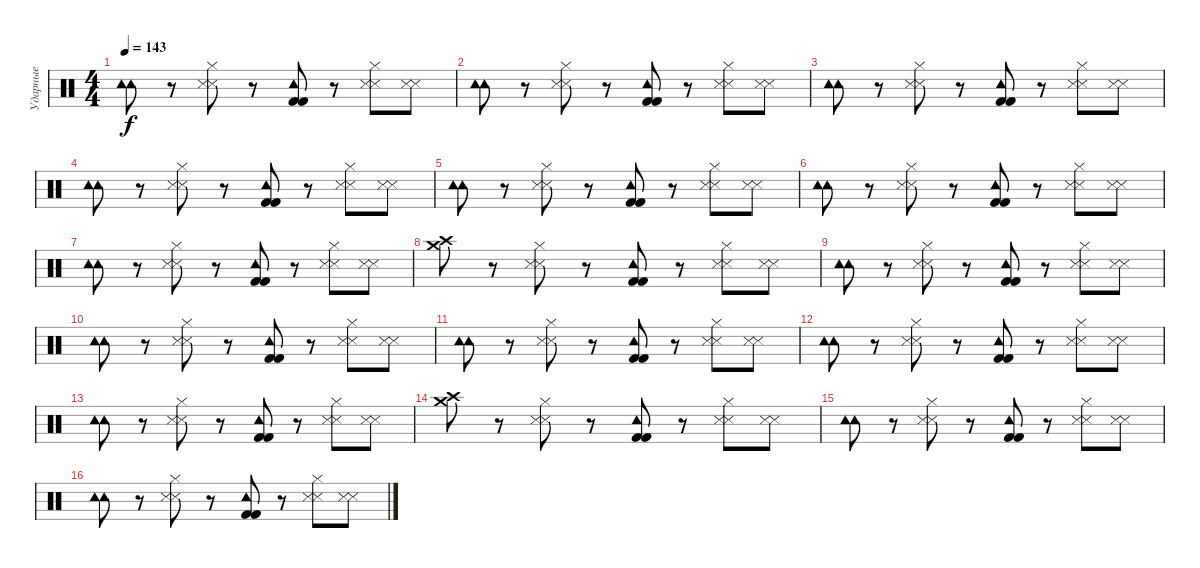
\track ("Ударные" "Ударные") {instrument percussion}
\staff {score}
\articulation defaults
\ts (4 4)
\tempo 143
\clef neutral
\ks c
("Tambourine (hit)" "Tambourine (hit)").8{dy f} r.8 ("Hi-Hat (closed)" "Metronome (hit)" "Metronome (hit)").8 r.8 ("Tambourine (hit)" "Kick (hit) 2" "Kick (hit) 2").8 r.8 ("Hi-Hat (closed)" "Metronome (hit)" "Metronome (hit)").8 ("Metronome (hit)" "Metronome (hit)").8 |
("Tambourine (hit)" "Tambourine (hit)").8 r.8 ("Hi-Hat (closed)" "Metronome (hit)" "Metronome (hit)").8 r.8 ("Tambourine (hit)" "Kick (hit) 2" "Kick (hit) 2").8 r.8 ("Hi-Hat (closed)" "Metronome (hit)" "Metronome (hit)").8 ("Metronome (hit)" "Metronome (hit)").8 |
("Tambourine (hit)" "Tambourine (hit)").8 r.8 ("Hi-Hat (closed)" "Metronome (hit)" "Metronome (hit)").8 r.8 ("Tambourine (hit)" "Kick (hit) 2" "Kick (hit) 2").8 r.8 ("Hi-Hat (closed)" "Metronome (hit)" "Metronome (hit)").8 ("Metronome (hit)" "Metronome (hit)").8 |
("Tambourine (hit)" "Tambourine (hit)").8 r.8 ("Hi-Hat (closed)" "Metronome (hit)" "Metronome (hit)").8 r.8 ("Tambourine (hit)" "Kick (hit) 2" "Kick (hit) 2").8 r.8 ("Hi-Hat (closed)" "Metronome (hit)" "Metronome (hit)").8 ("Metronome (hit)" "Metronome (hit)").8 |
("Tambourine (hit)" "Tambourine (hit)").8 r.8 ("Hi-Hat (closed)" "Metronome (hit)" "Metronome (hit)").8 r.8 ("Tambourine (hit)" "Kick (hit) 2" "Kick (hit) 2").8 r.8 ("Hi-Hat (closed)" "Metronome (hit)" "Metronome (hit)").8 ("Metronome (hit)" "Metronome (hit)").8 |
("Tambourine (hit)" "Tambourine (hit)").8 r.8 ("Hi-Hat (closed)" "Metronome (hit)" "Metronome (hit)").8 r.8 ("Tambourine (hit)" "Kick (hit) 2" "Kick (hit) 2").8 r.8 ("Hi-Hat (closed)" "Metronome (hit)" "Metronome (hit)").8 ("Metronome (hit)" "Metronome (hit)").8 |
("Tambourine (hit)" "Tambourine (hit)").8 r.8 ("Hi-Hat (closed)" "Metronome (hit)" "Metronome (hit)").8 r.8 ("Tambourine (hit)" "Kick (hit) 2" "Kick (hit) 2").8 r.8 ("Hi-Hat (closed)" "Metronome (hit)" "Metronome (hit)").8 ("Metronome (hit)" "Metronome (hit)").8 |
("Crash medium (hit)" "Crash high (hit)").8 r.8 ("Hi-Hat (closed)" "Metronome (hit)" "Metronome (hit)").8 r.8 ("Tambourine (hit)" "Kick (hit) 2" "Kick (hit) 2").8 r.8 ("Hi-Hat (closed)" "Metronome (hit)" "Metronome (hit)").8 ("Metronome (hit)" "Metronome (hit)").8 |
("Tambourine (hit)" "Tambourine (hit)").8 r.8 ("Hi-Hat (closed)" "Metronome (hit)" "Metronome (hit)").8 r.8 ("Tambourine (hit)" "Kick (hit) 2" "Kick (hit) 2").8 r.8 ("Hi-Hat (closed)" "Metronome (hit)" "Metronome (hit)").8 ("Metronome (hit)" "Metronome (hit)").8 |
("Tambourine (hit)" "Tambourine (hit)").8 r.8 ("Hi-Hat (closed)" "Metronome (hit)" "Metronome (hit)").8 r.8 ("Tambourine (hit)" "Kick (hit) 2" "Kick (hit) 2").8 r.8 ("Hi-Hat (closed)" "Metronome (hit)" "Metronome (hit)").8 ("Metronome (hit)" "Metronome (hit)").8 |
("Tambourine (hit)" "Tambourine (hit)").8 r.8 ("Hi-Hat (closed)" "Metronome (hit)" "Metronome (hit)").8 r.8 ("Tambourine (hit)" "Kick (hit) 2" "Kick (hit) 2").8 r.8 ("Hi-Hat (closed)" "Metronome (hit)" "Metronome (hit)").8 ("Metronome (hit)" "Metronome (hit)").8 |
("Tambourine (hit)" "Tambourine (hit)").8 r.8 ("Hi-Hat (closed)" "Metronome (hit)" "Metronome (hit)").8 r.8 ("Tambourine (hit)" "Kick (hit) 2" "Kick (hit) 2").8 r.8 ("Hi-Hat (closed)" "Metronome (hit)" "Metronome (hit)").8 ("Metronome (hit)" "Metronome (hit)").8 |
("Tambourine (hit)" "Tambourine (hit)").8 r.8 ("Hi-Hat (closed)" "Metronome (hit)" "Metronome (hit)").8 r.8 ("Tambourine (hit)" "Kick (hit) 2" "Kick (hit) 2").8 r.8 ("Hi-Hat (closed)" "Metronome (hit)" "Metronome (hit)").8 ("Metronome (hit)" "Metronome (hit)").8 |
("Crash medium (hit)" "Crash high (hit)").8 r.8 ("Hi-Hat (closed)" "Metronome (hit)" "Metronome (hit)").8 r.8 ("Tambourine (hit)" "Kick (hit) 2" "Kick (hit) 2").8 r.8 ("Hi-Hat (closed)" "Metronome (hit)" "Metronome (hit)").8 ("Metronome (hit)" "Metronome (hit)").8 |
("Tambourine (hit)" "Tambourine (hit)").8 r.8 ("Hi-Hat (closed)" "Metronome (hit)" "Metronome (hit)").8 r.8 ("Tambourine (hit)" "Kick (hit) 2" "Kick (hit) 2").8 r.8 ("Hi-Hat (closed)" "Metronome (hit)" "Metronome (hit)").8 ("Metronome (hit)" "Metronome (hit)").8 |
("Tambourine (hit)" "Tambourine (hit)").8 r.8 ("Hi-Hat (closed)" "Metronome (hit)" "Metronome (hit)").8 r.8 ("Tambourine (hit)" "Kick (hit) 2" "Kick (hit) 2").8 r.8 ("Hi-Hat (closed)" "Metronome (hit)" "Metronome (hit)").8 ("Metronome (hit)" "Metronome (hit)").8
